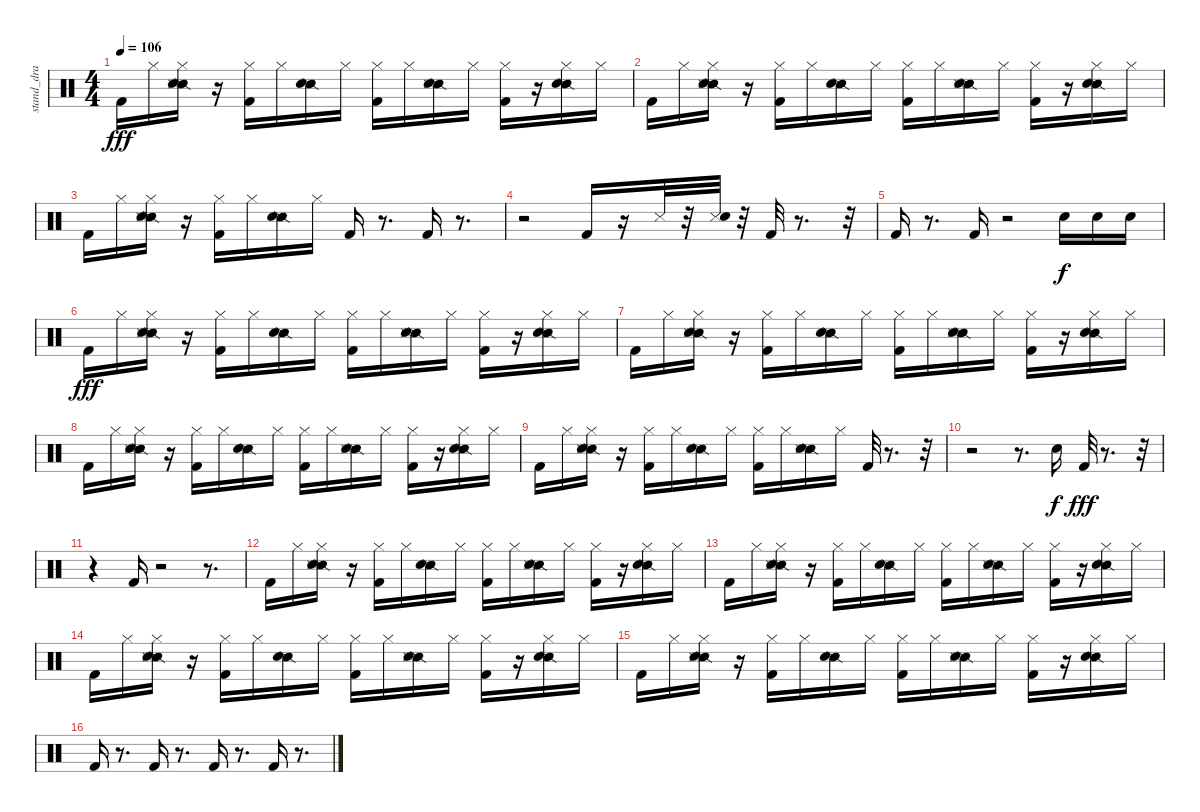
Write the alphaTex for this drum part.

\track ("stand_dra" "stand_dra") {instrument percussion}
\staff {score}
\articulation defaults
\ts (4 4)
\tempo 106
\clef neutral
\ks c "Kick (hit) 2".16{dy fff} "Hi-Hat (closed)".16
("Snare (side stick) 2" "Metronome (hit)" "Snare (hit) 2" "Hi-Hat (closed)").16 r.16 ("Kick (hit) 2" "Hi-Hat (closed)").16 "Hi-Hat (closed)".16 ("Snare (side stick) 2" "Snare (hit) 2").16 "Hi-Hat (closed)".16 ("Kick (hit) 2" "Hi-Hat (closed)").16 "Hi-Hat (closed)".16 ("Snare (side stick) 2" "Metronome (hit)" "Snare (hit) 2").16 "Hi-Hat (closed)".16 ("Kick (hit) 2" "Hi-Hat (closed)").16 r.16 ("Snare (side stick) 2" "Snare (hit) 2" "Hi-Hat (closed)").16 "Hi-Hat (closed)".16 |
"Kick (hit) 2".16 "Hi-Hat (closed)".16 ("Snare (side stick) 2" "Metronome (hit)" "Snare (hit) 2" "Hi-Hat (closed)").16 r.16 ("Kick (hit) 2" "Hi-Hat (closed)").16 "Hi-Hat (closed)".16 ("Snare (side stick) 2" "Snare (hit) 2").16 "Hi-Hat (closed)".16 ("Kick (hit) 2" "Hi-Hat (closed)").16 "Hi-Hat (closed)".16 ("Snare (side stick) 2" "Metronome (hit)" "Snare (hit) 2").16 "Hi-Hat (closed)".16 ("Kick (hit) 2" "Hi-Hat (closed)").16 r.16 ("Snare (side stick) 2" "Snare (hit) 2" "Hi-Hat (closed)").16 "Hi-Hat (closed)".16 |
"Kick (hit) 2".16 "Hi-Hat (closed)".16 ("Snare (side stick) 2" "Metronome (hit)" "Snare (hit) 2" "Hi-Hat (closed)").16 r.16 ("Kick (hit) 2" "Hi-Hat (closed)").16 "Hi-Hat (closed)".16 ("Snare (side stick) 2" "Snare (hit) 2").16 "Hi-Hat (closed)".16 "Kick (hit) 2".16 r.8{d} "Kick (hit) 2".16 r.8{d} |
r.2 "Kick (hit) 2".16 r.16 "Metronome (hit)".32 r.32 ("Snare (side stick) 3" "Electric Snare (hit)").32 r.32 "Kick (hit) 2".32 r.8{d} r.32 |
"Kick (hit) 2".16 r.8{d} "Kick (hit) 2".16 r.2 "Snare (hit) 2".16{dy f} "Snare (hit) 2".16 "Snare (hit) 2".16 |
"Kick (hit) 2".16{dy fff} "Hi-Hat (closed)".16 ("Snare (side stick) 2" "Metronome (hit)" "Snare (hit) 2" "Hi-Hat (closed)").16 r.16 ("Kick (hit) 2" "Hi-Hat (closed)").16 "Hi-Hat (closed)".16 ("Snare (side stick) 2" "Snare (hit) 2").16 "Hi-Hat (closed)".16 ("Kick (hit) 2" "Hi-Hat (closed)").16 "Hi-Hat (closed)".16 ("Snare (side stick) 2" "Metronome (hit)" "Snare (hit) 2").16 "Hi-Hat (closed)".16 ("Kick (hit) 2" "Hi-Hat (closed)").16 r.16 ("Snare (side stick) 2" "Snare (hit) 2" "Hi-Hat (closed)").16 "Hi-Hat (closed)".16 |
"Kick (hit) 2".16 "Hi-Hat (closed)".16 ("Snare (side stick) 2" "Metronome (hit)" "Snare (hit) 2" "Hi-Hat (closed)").16 r.16 ("Kick (hit) 2" "Hi-Hat (closed)").16 "Hi-Hat (closed)".16 ("Snare (side stick) 2" "Snare (hit) 2").16 "Hi-Hat (closed)".16 ("Kick (hit) 2" "Hi-Hat (closed)").16 "Hi-Hat (closed)".16 ("Snare (side stick) 2" "Metronome (hit)" "Snare (hit) 2").16 "Hi-Hat (closed)".16 ("Kick (hit) 2" "Hi-Hat (closed)").16 r.16 ("Snare (side stick) 2" "Snare (hit) 2" "Hi-Hat (closed)").16 "Hi-Hat (closed)".16 |
"Kick (hit) 2".16 "Hi-Hat (closed)".16 ("Snare (side stick) 2" "Metronome (hit)" "Snare (hit) 2" "Hi-Hat (closed)").16 r.16 ("Kick (hit) 2" "Hi-Hat (closed)").16 "Hi-Hat (closed)".16 ("Snare (side stick) 2" "Snare (hit) 2").16 "Hi-Hat (closed)".16 ("Kick (hit) 2" "Hi-Hat (closed)").16 "Hi-Hat (closed)".16 ("Snare (side stick) 2" "Metronome (hit)" "Snare (hit) 2").16 "Hi-Hat (closed)".16 ("Kick (hit) 2" "Hi-Hat (closed)").16 r.16 ("Snare (side stick) 2" "Snare (hit) 2" "Hi-Hat (closed)").16 "Hi-Hat (closed)".16 |
"Kick (hit) 2".16 "Hi-Hat (closed)".16 ("Snare (side stick) 2" "Metronome (hit)" "Snare (hit) 2" "Hi-Hat (closed)").16 r.16 ("Kick (hit) 2" "Hi-Hat (closed)").16 "Hi-Hat (closed)".16 ("Snare (side stick) 2" "Snare (hit) 2").16 "Hi-Hat (closed)".16 ("Kick (hit) 2" "Hi-Hat (closed)").16 "Hi-Hat (closed)".16 ("Snare (side stick) 2" "Metronome (hit)" "Snare (hit) 2").16 "Hi-Hat (closed)".16 "Kick (hit) 2".32 r.8{d} r.32 |
r.2 r.8{d} "Snare (hit) 2".16{dy f} "Kick (hit) 2".32{dy fff} r.8{d} r.32 |
r.4 "Kick (hit) 2".16 r.2 r.8{d} |
"Kick (hit) 2".16 "Hi-Hat (closed)".16 ("Snare (side stick) 2" "Metronome (hit)" "Snare (hit) 2" "Hi-Hat (closed)").16 r.16 ("Kick (hit) 2" "Hi-Hat (closed)").16 "Hi-Hat (closed)".16 ("Snare (side stick) 2" "Snare (hit) 2").16 "Hi-Hat (closed)".16 ("Kick (hit) 2" "Hi-Hat (closed)").16 "Hi-Hat (closed)".16 ("Snare (side stick) 2" "Metronome (hit)" "Snare (hit) 2").16 "Hi-Hat (closed)".16 ("Kick (hit) 2" "Hi-Hat (closed)").16 r.16 ("Snare (side stick) 2" "Snare (hit) 2" "Hi-Hat (closed)").16 "Hi-Hat (closed)".16 |
"Kick (hit) 2".16 "Hi-Hat (closed)".16 ("Snare (side stick) 2" "Metronome (hit)" "Snare (hit) 2" "Hi-Hat (closed)").16 r.16 ("Kick (hit) 2" "Hi-Hat (closed)").16 "Hi-Hat (closed)".16 ("Snare (side stick) 2" "Snare (hit) 2").16 "Hi-Hat (closed)".16 ("Kick (hit) 2" "Hi-Hat (closed)").16 "Hi-Hat (closed)".16 ("Snare (side stick) 2" "Metronome (hit)" "Snare (hit) 2").16 "Hi-Hat (closed)".16 ("Kick (hit) 2" "Hi-Hat (closed)").16 r.16 ("Snare (side stick) 2" "Snare (hit) 2" "Hi-Hat (closed)").16 "Hi-Hat (closed)".16 |
"Kick (hit) 2".16 "Hi-Hat (closed)".16 ("Snare (side stick) 2" "Metronome (hit)" "Snare (hit) 2" "Hi-Hat (closed)").16 r.16 ("Kick (hit) 2" "Hi-Hat (closed)").16 "Hi-Hat (closed)".16 ("Snare (side stick) 2" "Snare (hit) 2").16 "Hi-Hat (closed)".16 ("Kick (hit) 2" "Hi-Hat (closed)").16 "Hi-Hat (closed)".16 ("Snare (side stick) 2" "Metronome (hit)" "Snare (hit) 2").16 "Hi-Hat (closed)".16 ("Kick (hit) 2" "Hi-Hat (closed)").16 r.16 ("Snare (side stick) 2" "Snare (hit) 2" "Hi-Hat (closed)").16 "Hi-Hat (closed)".16 |
"Kick (hit) 2".16 "Hi-Hat (closed)".16 ("Snare (side stick) 2" "Metronome (hit)" "Snare (hit) 2" "Hi-Hat (closed)").16 r.16 ("Kick (hit) 2" "Hi-Hat (closed)").16 "Hi-Hat (closed)".16 ("Snare (side stick) 2" "Snare (hit) 2").16 "Hi-Hat (closed)".16 ("Kick (hit) 2" "Hi-Hat (closed)").16 "Hi-Hat (closed)".16 ("Snare (side stick) 2" "Metronome (hit)" "Snare (hit) 2").16 "Hi-Hat (closed)".16 ("Kick (hit) 2" "Hi-Hat (closed)").16 r.16 ("Snare (side stick) 2" "Snare (hit) 2" "Hi-Hat (closed)").16 "Hi-Hat (closed)".16 |
"Kick (hit) 2".16 r.8{d} "Kick (hit) 2".16 r.8{d} "Kick (hit) 2".16 r.8{d} "Kick (hit) 2".16 r.8{d}
